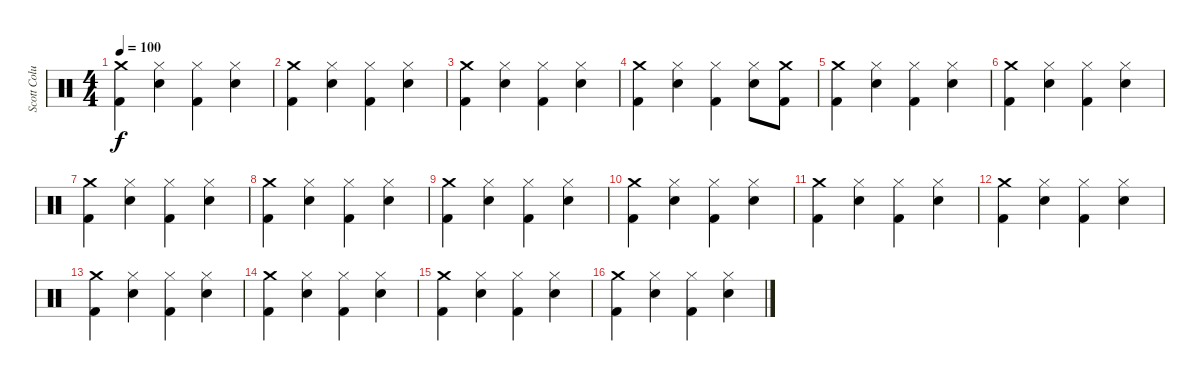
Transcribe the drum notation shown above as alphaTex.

\track ("Scott Columbus" "Scott Colu") {instrument percussion}
\staff {score}
\articulation defaults
\ts (4 4)
\tempo 100
\clef neutral
\ks c
("Crash medium (hit)" "Kick (hit) 2").4{dy f} ("Hi-Hat (closed)" "Snare (hit) 2").4 ("Hi-Hat (closed)" "Kick (hit) 2").4 ("Hi-Hat (closed)" "Snare (hit) 2").4 |
("Crash medium (hit)" "Kick (hit) 2").4 ("Hi-Hat (closed)" "Snare (hit) 2").4 ("Hi-Hat (closed)" "Kick (hit) 2").4 ("Hi-Hat (closed)" "Snare (hit) 2").4 |
("Crash medium (hit)" "Kick (hit) 2").4 ("Hi-Hat (closed)" "Snare (hit) 2").4 ("Hi-Hat (closed)" "Kick (hit) 2").4 ("Hi-Hat (closed)" "Snare (hit) 2").4 |
("Crash medium (hit)" "Kick (hit) 2").4 ("Hi-Hat (closed)" "Snare (hit) 2").4 ("Hi-Hat (closed)" "Kick (hit) 2").4 ("Hi-Hat (closed)" "Snare (hit) 2").8 ("Crash medium (hit)" "Kick (hit) 2").8 |
("Crash medium (hit)" "Kick (hit) 2").4 ("Hi-Hat (closed)" "Snare (hit) 2").4 ("Hi-Hat (closed)" "Kick (hit) 2").4 ("Hi-Hat (closed)" "Snare (hit) 2").4 |
("Crash medium (hit)" "Kick (hit) 2").4 ("Hi-Hat (closed)" "Snare (hit) 2").4 ("Hi-Hat (closed)" "Kick (hit) 2").4 ("Hi-Hat (closed)" "Snare (hit) 2").4 |
("Crash medium (hit)" "Kick (hit) 2").4 ("Hi-Hat (closed)" "Snare (hit) 2").4 ("Hi-Hat (closed)" "Kick (hit) 2").4 ("Hi-Hat (closed)" "Snare (hit) 2").4 |
("Crash medium (hit)" "Kick (hit) 2").4 ("Hi-Hat (closed)" "Snare (hit) 2").4 ("Hi-Hat (closed)" "Kick (hit) 2").4 ("Hi-Hat (closed)" "Snare (hit) 2").4 |
("Crash medium (hit)" "Kick (hit) 2").4 ("Hi-Hat (closed)" "Snare (hit) 2").4 ("Hi-Hat (closed)" "Kick (hit) 2").4 ("Hi-Hat (closed)" "Snare (hit) 2").4 |
("Crash medium (hit)" "Kick (hit) 2").4 ("Hi-Hat (closed)" "Snare (hit) 2").4 ("Hi-Hat (closed)" "Kick (hit) 2").4 ("Hi-Hat (closed)" "Snare (hit) 2").4 |
("Crash medium (hit)" "Kick (hit) 2").4 ("Hi-Hat (closed)" "Snare (hit) 2").4 ("Hi-Hat (closed)" "Kick (hit) 2").4 ("Hi-Hat (closed)" "Snare (hit) 2").4 |
("Crash medium (hit)" "Kick (hit) 2").4 ("Hi-Hat (closed)" "Snare (hit) 2").4 ("Hi-Hat (closed)" "Kick (hit) 2").4 ("Hi-Hat (closed)" "Snare (hit) 2").4 |
("Crash medium (hit)" "Kick (hit) 2").4 ("Hi-Hat (closed)" "Snare (hit) 2").4 ("Hi-Hat (closed)" "Kick (hit) 2").4 ("Hi-Hat (closed)" "Snare (hit) 2").4 |
("Crash medium (hit)" "Kick (hit) 2").4 ("Hi-Hat (closed)" "Snare (hit) 2").4 ("Hi-Hat (closed)" "Kick (hit) 2").4 ("Hi-Hat (closed)" "Snare (hit) 2").4 |
("Crash medium (hit)" "Kick (hit) 2").4 ("Hi-Hat (closed)" "Snare (hit) 2").4 ("Hi-Hat (closed)" "Kick (hit) 2").4 ("Hi-Hat (closed)" "Snare (hit) 2").4 |
("Crash medium (hit)" "Kick (hit) 2").4 ("Hi-Hat (closed)" "Snare (hit) 2").4 ("Hi-Hat (closed)" "Kick (hit) 2").4 ("Hi-Hat (closed)" "Snare (hit) 2").4
